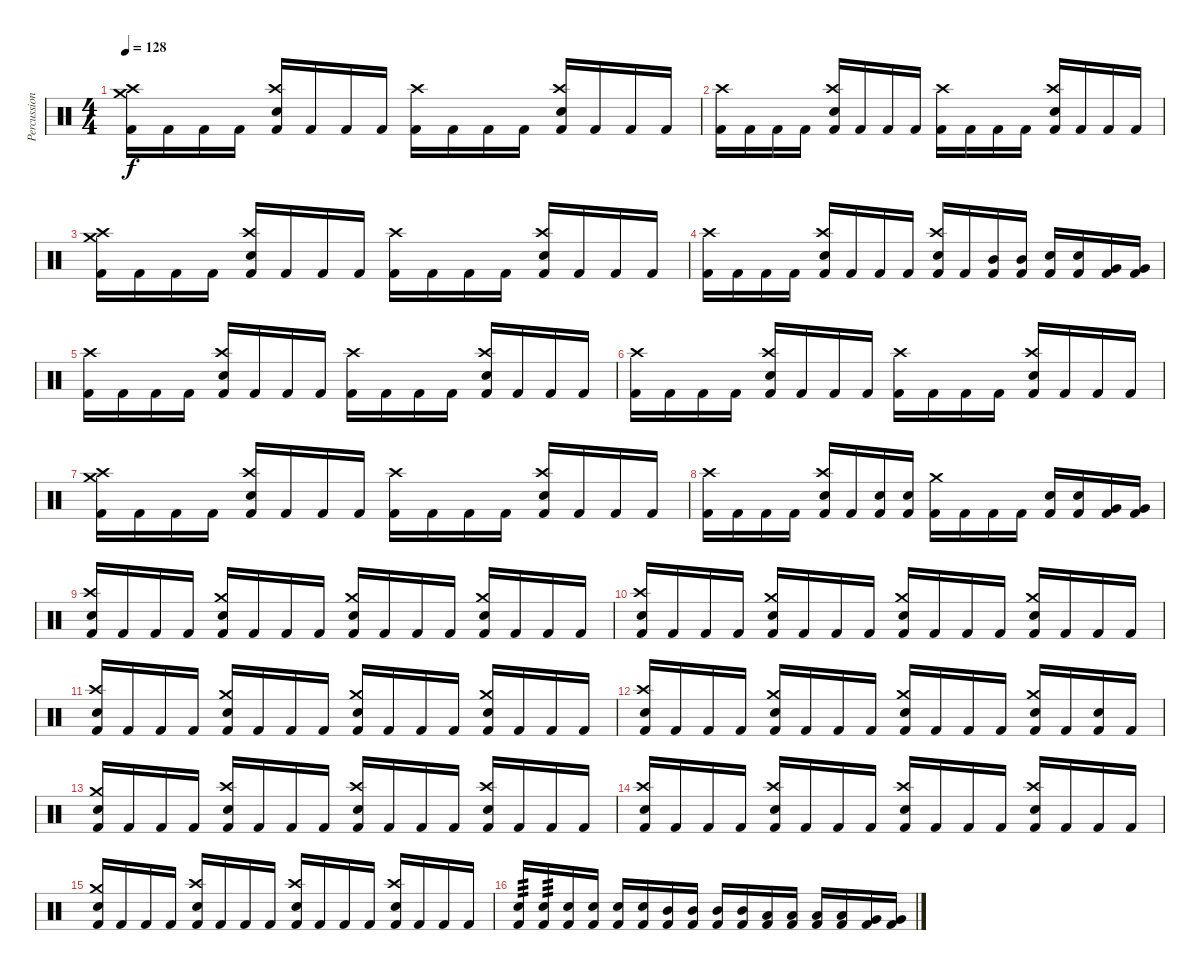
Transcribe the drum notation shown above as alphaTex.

\track ("Percussion" "Percussion") {instrument percussion}
\staff {score}
\articulation defaults
\ts (4 4)
\tempo 128
\clef neutral
\ks c
("Kick (hit) 2" "Crash medium (hit)" "Crash high (hit)").16{dy f} "Kick (hit) 2".16 "Kick (hit) 2".16 "Kick (hit) 2".16 ("Kick (hit) 2" "Electric Snare (hit)" "Crash high (hit)").16 "Kick (hit) 2".16 "Kick (hit) 2".16 "Kick (hit) 2".16 ("Kick (hit) 2" "Crash high (hit)").16 "Kick (hit) 2".16 "Kick (hit) 2".16 "Kick (hit) 2".16 ("Kick (hit) 2" "Electric Snare (hit)" "Crash high (hit)").16 "Kick (hit) 2".16 "Kick (hit) 2".16 "Kick (hit) 2".16 |
("Kick (hit) 2" "Crash high (hit)").16 "Kick (hit) 2".16 "Kick (hit) 2".16 "Kick (hit) 2".16 ("Kick (hit) 2" "Electric Snare (hit)" "Crash high (hit)").16 "Kick (hit) 2".16 "Kick (hit) 2".16 "Kick (hit) 2".16 ("Kick (hit) 2" "Crash high (hit)").16 "Kick (hit) 2".16 "Kick (hit) 2".16 "Kick (hit) 2".16 ("Kick (hit) 2" "Electric Snare (hit)" "Crash high (hit)").16 "Kick (hit) 2".16 "Kick (hit) 2".16 "Kick (hit) 2".16 |
("Kick (hit) 2" "Crash medium (hit)" "Crash high (hit)").16 "Kick (hit) 2".16 "Kick (hit) 2".16 "Kick (hit) 2".16 ("Kick (hit) 2" "Electric Snare (hit)" "Crash high (hit)").16 "Kick (hit) 2".16 "Kick (hit) 2".16 "Kick (hit) 2".16 ("Kick (hit) 2" "Crash high (hit)").16 "Kick (hit) 2".16 "Kick (hit) 2".16 "Kick (hit) 2".16 ("Kick (hit) 2" "Electric Snare (hit)" "Crash high (hit)").16 "Kick (hit) 2".16 "Kick (hit) 2".16 "Kick (hit) 2".16 |
("Kick (hit) 2" "Crash high (hit)").16 "Kick (hit) 2".16 "Kick (hit) 2".16 "Kick (hit) 2".16 ("Kick (hit) 2" "Electric Snare (hit)" "Crash high (hit)").16 "Kick (hit) 2".16 "Kick (hit) 2".16 "Kick (hit) 2".16 ("Kick (hit) 2" "Electric Snare (hit)" "Crash high (hit)").16 "Kick (hit) 2".16 ("Kick (hit) 2" "Mid Tom (hit)").16 ("Kick (hit) 2" "Mid Tom (hit)").16 ("Kick (hit) 2" "Electric Snare (hit)").16 ("Kick (hit) 2" "Electric Snare (hit)").16 ("Kick (hit) 2" "Very Low Tom (hit)").16 ("Kick (hit) 2" "Very Low Tom (hit)").16 |
("Kick (hit) 2" "Crash high (hit)").16 "Kick (hit) 2".16 "Kick (hit) 2".16 "Kick (hit) 2".16 ("Kick (hit) 2" "Electric Snare (hit)" "Crash high (hit)").16 "Kick (hit) 2".16 "Kick (hit) 2".16 "Kick (hit) 2".16 ("Kick (hit) 2" "Crash high (hit)").16 "Kick (hit) 2".16 "Kick (hit) 2".16 "Kick (hit) 2".16 ("Kick (hit) 2" "Electric Snare (hit)" "Crash high (hit)").16 "Kick (hit) 2".16 "Kick (hit) 2".16 "Kick (hit) 2".16 |
("Kick (hit) 2" "Crash high (hit)").16 "Kick (hit) 2".16 "Kick (hit) 2".16 "Kick (hit) 2".16 ("Kick (hit) 2" "Electric Snare (hit)" "Crash high (hit)").16 "Kick (hit) 2".16 "Kick (hit) 2".16 "Kick (hit) 2".16 ("Kick (hit) 2" "Crash high (hit)").16 "Kick (hit) 2".16 "Kick (hit) 2".16 "Kick (hit) 2".16 ("Kick (hit) 2" "Electric Snare (hit)" "Crash high (hit)").16 "Kick (hit) 2".16 "Kick (hit) 2".16 "Kick (hit) 2".16 |
("Kick (hit) 2" "Crash medium (hit)" "Crash high (hit)").16 "Kick (hit) 2".16 "Kick (hit) 2".16 "Kick (hit) 2".16 ("Kick (hit) 2" "Electric Snare (hit)" "Crash high (hit)").16 "Kick (hit) 2".16 "Kick (hit) 2".16 "Kick (hit) 2".16 ("Kick (hit) 2" "Crash high (hit)").16 "Kick (hit) 2".16 "Kick (hit) 2".16 "Kick (hit) 2".16 ("Kick (hit) 2" "Electric Snare (hit)" "Crash high (hit)").16 "Kick (hit) 2".16 "Kick (hit) 2".16 "Kick (hit) 2".16 |
("Kick (hit) 2" "Crash high (hit)").16 "Kick (hit) 2".16 "Kick (hit) 2".16 "Kick (hit) 2".16 ("Kick (hit) 2" "Electric Snare (hit)" "Crash high (hit)").16 "Kick (hit) 2".16 ("Kick (hit) 2" "Electric Snare (hit)").16 ("Kick (hit) 2" "Electric Snare (hit)").16 ("Kick (hit) 2" "Crash medium (hit)").16 "Kick (hit) 2".16 "Kick (hit) 2".16 "Kick (hit) 2".16 ("Kick (hit) 2" "Electric Snare (hit)").16 ("Kick (hit) 2" "Electric Snare (hit)").16 ("Kick (hit) 2" "Very Low Tom (hit)").16 ("Kick (hit) 2" "Very Low Tom (hit)").16 |
("Kick (hit) 2" "Electric Snare (hit)" "Crash high (hit)").16 "Kick (hit) 2".16 "Kick (hit) 2".16 "Kick (hit) 2".16 ("Kick (hit) 2" "Electric Snare (hit)" "Crash medium (hit)").16 "Kick (hit) 2".16 "Kick (hit) 2".16 "Kick (hit) 2".16 ("Kick (hit) 2" "Electric Snare (hit)" "Crash medium (hit)").16 "Kick (hit) 2".16 "Kick (hit) 2".16 "Kick (hit) 2".16 ("Kick (hit) 2" "Electric Snare (hit)" "Crash medium (hit)").16 "Kick (hit) 2".16 "Kick (hit) 2".16 "Kick (hit) 2".16 |
("Kick (hit) 2" "Electric Snare (hit)" "Crash high (hit)").16 "Kick (hit) 2".16 "Kick (hit) 2".16 "Kick (hit) 2".16 ("Kick (hit) 2" "Electric Snare (hit)" "Crash medium (hit)").16 "Kick (hit) 2".16 "Kick (hit) 2".16 "Kick (hit) 2".16 ("Kick (hit) 2" "Electric Snare (hit)" "Crash medium (hit)").16 "Kick (hit) 2".16 "Kick (hit) 2".16 "Kick (hit) 2".16 ("Kick (hit) 2" "Electric Snare (hit)" "Crash medium (hit)").16 "Kick (hit) 2".16 "Kick (hit) 2".16 "Kick (hit) 2".16 |
("Kick (hit) 2" "Electric Snare (hit)" "Crash high (hit)").16 "Kick (hit) 2".16 "Kick (hit) 2".16 "Kick (hit) 2".16 ("Kick (hit) 2" "Electric Snare (hit)" "Crash medium (hit)").16 "Kick (hit) 2".16 "Kick (hit) 2".16 "Kick (hit) 2".16 ("Kick (hit) 2" "Electric Snare (hit)" "Crash medium (hit)").16 "Kick (hit) 2".16 "Kick (hit) 2".16 "Kick (hit) 2".16 ("Kick (hit) 2" "Electric Snare (hit)" "Crash medium (hit)").16 "Kick (hit) 2".16 "Kick (hit) 2".16 "Kick (hit) 2".16 |
("Kick (hit) 2" "Electric Snare (hit)" "Crash high (hit)").16 "Kick (hit) 2".16 "Kick (hit) 2".16 "Kick (hit) 2".16 ("Kick (hit) 2" "Electric Snare (hit)" "Crash medium (hit)").16 "Kick (hit) 2".16 "Kick (hit) 2".16 "Kick (hit) 2".16 ("Kick (hit) 2" "Electric Snare (hit)" "Crash medium (hit)").16 "Kick (hit) 2".16 "Kick (hit) 2".16 "Kick (hit) 2".16 ("Kick (hit) 2" "Electric Snare (hit)" "Crash medium (hit)").16 "Kick (hit) 2".16 ("Kick (hit) 2" "Electric Snare (hit)").16 "Kick (hit) 2".16 |
("Kick (hit) 2" "Electric Snare (hit)" "Crash medium (hit)").16 "Kick (hit) 2".16 "Kick (hit) 2".16 "Kick (hit) 2".16 ("Kick (hit) 2" "Electric Snare (hit)" "Crash high (hit)").16 "Kick (hit) 2".16 "Kick (hit) 2".16 "Kick (hit) 2".16 ("Kick (hit) 2" "Electric Snare (hit)" "Crash high (hit)").16 "Kick (hit) 2".16 "Kick (hit) 2".16 "Kick (hit) 2".16 ("Kick (hit) 2" "Electric Snare (hit)" "Crash high (hit)").16 "Kick (hit) 2".16 "Kick (hit) 2".16 "Kick (hit) 2".16 |
("Kick (hit) 2" "Electric Snare (hit)" "Crash high (hit)").16 "Kick (hit) 2".16 "Kick (hit) 2".16 "Kick (hit) 2".16 ("Kick (hit) 2" "Electric Snare (hit)" "Crash high (hit)").16 "Kick (hit) 2".16 "Kick (hit) 2".16 "Kick (hit) 2".16 ("Kick (hit) 2" "Electric Snare (hit)" "Crash high (hit)").16 "Kick (hit) 2".16 "Kick (hit) 2".16 "Kick (hit) 2".16 ("Kick (hit) 2" "Electric Snare (hit)" "Crash high (hit)").16 "Kick (hit) 2".16 "Kick (hit) 2".16 "Kick (hit) 2".16 |
("Kick (hit) 2" "Electric Snare (hit)" "Crash medium (hit)").16 "Kick (hit) 2".16 "Kick (hit) 2".16 "Kick (hit) 2".16 ("Kick (hit) 2" "Electric Snare (hit)" "Crash high (hit)").16 "Kick (hit) 2".16 "Kick (hit) 2".16 "Kick (hit) 2".16 ("Kick (hit) 2" "Electric Snare (hit)" "Crash high (hit)").16 "Kick (hit) 2".16 "Kick (hit) 2".16 "Kick (hit) 2".16 ("Kick (hit) 2" "Electric Snare (hit)" "Crash high (hit)").16 "Kick (hit) 2".16 "Kick (hit) 2".16 "Kick (hit) 2".16 |
("Kick (hit) 2" "Electric Snare (hit)").16{tp 3} ("Kick (hit) 2" "Electric Snare (hit)").16{tp 3} ("Kick (hit) 2" "Electric Snare (hit)").16 ("Kick (hit) 2" "Electric Snare (hit)").16 ("Kick (hit) 2" "Electric Snare (hit)").16 ("Kick (hit) 2" "Electric Snare (hit)").16 ("Kick (hit) 2" "Mid Tom (hit)").16 ("Kick (hit) 2" "Mid Tom (hit)").16 ("Kick (hit) 2" "Mid Tom (hit)").16 ("Kick (hit) 2" "Mid Tom (hit)").16 ("Kick (hit) 2" "Low Tom (hit)").16 ("Kick (hit) 2" "Low Tom (hit)").16 ("Kick (hit) 2" "Low Tom (hit)").16 ("Kick (hit) 2" "Low Tom (hit)").16 ("Kick (hit) 2" "Very Low Tom (hit)").16 ("Kick (hit) 2" "Very Low Tom (hit)").16
